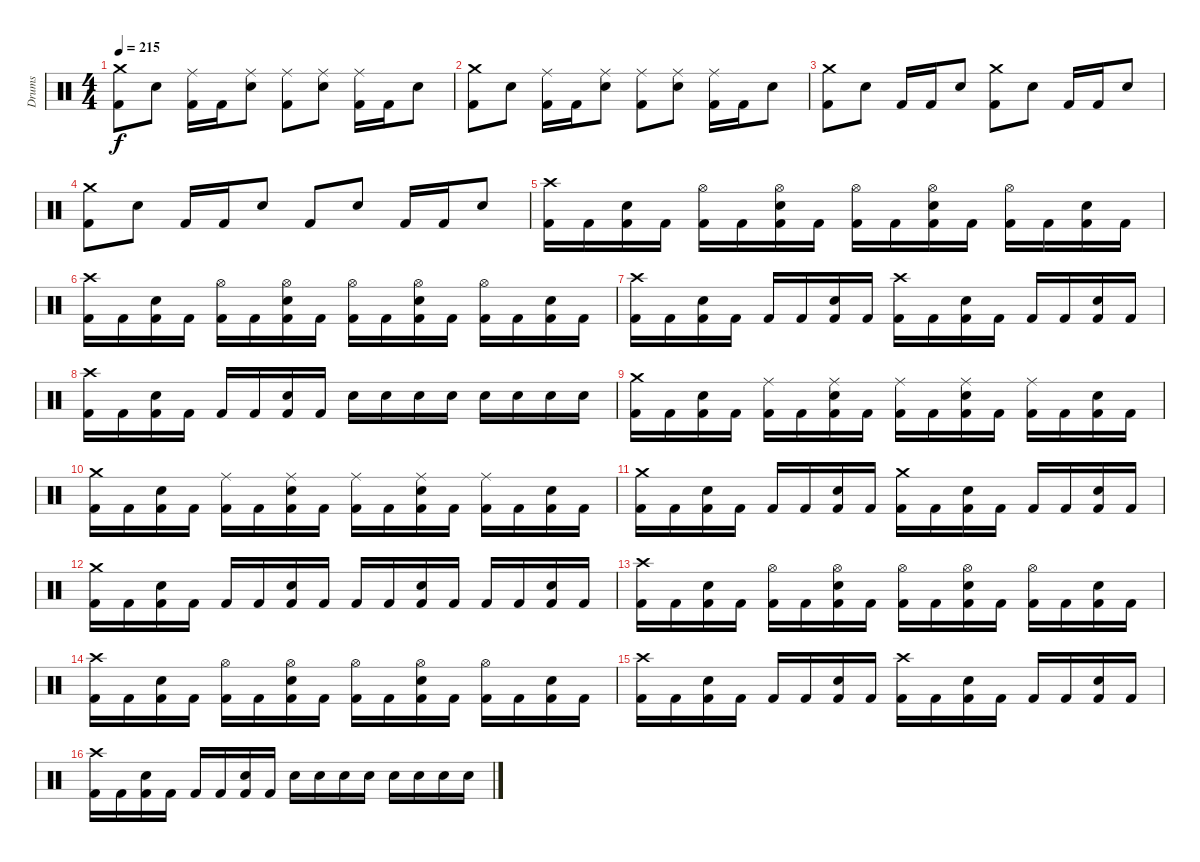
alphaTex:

\track ("Drums" "Drums") {instrument percussion}
\staff {score}
\articulation defaults
\ts (4 4)
\tempo 215
\clef neutral
\ks c
("Crash medium (hit)" "Kick (hit) 2").8{dy f} "Snare (hit) 2".8 ("Ride (middle)" "Kick (hit) 2").16 "Kick (hit) 2".16 ("Ride (middle)" "Snare (hit) 2").8 ("Ride (middle)" "Kick (hit) 2").8 ("Ride (middle)" "Snare (hit) 2").8 ("Ride (middle)" "Kick (hit) 2").16 "Kick (hit) 2".16 "Snare (hit) 2".8 |
("Crash medium (hit)" "Kick (hit) 2").8 "Snare (hit) 2".8 ("Ride (middle)" "Kick (hit) 2").16 "Kick (hit) 2".16 ("Ride (middle)" "Snare (hit) 2").8 ("Ride (middle)" "Kick (hit) 2").8 ("Ride (middle)" "Snare (hit) 2").8 ("Ride (middle)" "Kick (hit) 2").16 "Kick (hit) 2".16 "Snare (hit) 2".8 |
("Crash medium (hit)" "Kick (hit) 2").8 "Snare (hit) 2".8 "Kick (hit) 2".16 "Kick (hit) 2".16 "Snare (hit) 2".8 ("Crash medium (hit)" "Kick (hit) 2").8 "Snare (hit) 2".8 "Kick (hit) 2".16 "Kick (hit) 2".16 "Snare (hit) 2".8 |
("Crash medium (hit)" "Kick (hit) 2").8 "Snare (hit) 2".8 "Kick (hit) 2".16 "Kick (hit) 2".16 "Snare (hit) 2".8 "Kick (hit) 2".8 "Snare (hit) 2".8 "Kick (hit) 2".16 "Kick (hit) 2".16 "Snare (hit) 2".8 |
("Crash high (hit)" "Kick (hit) 2").16 "Kick (hit) 2".16 ("Snare (hit) 2" "Kick (hit) 2").16 "Kick (hit) 2".16 ("Hi-Hat (open)" "Kick (hit) 2").16 "Kick (hit) 2".16 ("Hi-Hat (open)" "Snare (hit) 2" "Kick (hit) 2").16 "Kick (hit) 2".16 ("Hi-Hat (open)" "Kick (hit) 2").16 "Kick (hit) 2".16 ("Hi-Hat (open)" "Snare (hit) 2" "Kick (hit) 2").16 "Kick (hit) 2".16 ("Hi-Hat (open)" "Kick (hit) 2").16 "Kick (hit) 2".16 ("Snare (hit) 2" "Kick (hit) 2").16 "Kick (hit) 2".16 |
("Crash high (hit)" "Kick (hit) 2").16 "Kick (hit) 2".16 ("Snare (hit) 2" "Kick (hit) 2").16 "Kick (hit) 2".16 ("Hi-Hat (open)" "Kick (hit) 2").16 "Kick (hit) 2".16 ("Hi-Hat (open)" "Snare (hit) 2" "Kick (hit) 2").16 "Kick (hit) 2".16 ("Hi-Hat (open)" "Kick (hit) 2").16 "Kick (hit) 2".16 ("Hi-Hat (open)" "Snare (hit) 2" "Kick (hit) 2").16 "Kick (hit) 2".16 ("Hi-Hat (open)" "Kick (hit) 2").16 "Kick (hit) 2".16 ("Snare (hit) 2" "Kick (hit) 2").16 "Kick (hit) 2".16 |
("Crash high (hit)" "Kick (hit) 2").16 "Kick (hit) 2".16 ("Snare (hit) 2" "Kick (hit) 2").16 "Kick (hit) 2".16 "Kick (hit) 2".16 "Kick (hit) 2".16 ("Snare (hit) 2" "Kick (hit) 2").16 "Kick (hit) 2".16 ("Crash high (hit)" "Kick (hit) 2").16 "Kick (hit) 2".16 ("Snare (hit) 2" "Kick (hit) 2").16 "Kick (hit) 2".16 "Kick (hit) 2".16 "Kick (hit) 2".16 ("Snare (hit) 2" "Kick (hit) 2").16 "Kick (hit) 2".16 |
("Crash high (hit)" "Kick (hit) 2").16 "Kick (hit) 2".16 ("Snare (hit) 2" "Kick (hit) 2").16 "Kick (hit) 2".16 "Kick (hit) 2".16 "Kick (hit) 2".16 ("Snare (hit) 2" "Kick (hit) 2").16 "Kick (hit) 2".16 "Snare (hit) 2".16 "Snare (hit) 2".16 "Snare (hit) 2".16 "Snare (hit) 2".16 "Snare (hit) 2".16 "Snare (hit) 2".16 "Snare (hit) 2".16 "Snare (hit) 2".16 |
("Crash medium (hit)" "Kick (hit) 2").16 "Kick (hit) 2".16 ("Snare (hit) 2" "Kick (hit) 2").16 "Kick (hit) 2".16 ("Ride (middle)" "Kick (hit) 2").16 "Kick (hit) 2".16 ("Ride (middle)" "Snare (hit) 2" "Kick (hit) 2").16 "Kick (hit) 2".16 ("Ride (middle)" "Kick (hit) 2").16 "Kick (hit) 2".16 ("Ride (middle)" "Snare (hit) 2" "Kick (hit) 2").16 "Kick (hit) 2".16 ("Ride (middle)" "Kick (hit) 2").16 "Kick (hit) 2".16 ("Snare (hit) 2" "Kick (hit) 2").16 "Kick (hit) 2".16 |
("Crash medium (hit)" "Kick (hit) 2").16 "Kick (hit) 2".16 ("Snare (hit) 2" "Kick (hit) 2").16 "Kick (hit) 2".16 ("Ride (middle)" "Kick (hit) 2").16 "Kick (hit) 2".16 ("Ride (middle)" "Snare (hit) 2" "Kick (hit) 2").16 "Kick (hit) 2".16 ("Ride (middle)" "Kick (hit) 2").16 "Kick (hit) 2".16 ("Ride (middle)" "Snare (hit) 2" "Kick (hit) 2").16 "Kick (hit) 2".16 ("Ride (middle)" "Kick (hit) 2").16 "Kick (hit) 2".16 ("Snare (hit) 2" "Kick (hit) 2").16 "Kick (hit) 2".16 |
("Crash medium (hit)" "Kick (hit) 2").16 "Kick (hit) 2".16 ("Snare (hit) 2" "Kick (hit) 2").16 "Kick (hit) 2".16 "Kick (hit) 2".16 "Kick (hit) 2".16 ("Snare (hit) 2" "Kick (hit) 2").16 "Kick (hit) 2".16 ("Crash medium (hit)" "Kick (hit) 2").16 "Kick (hit) 2".16 ("Snare (hit) 2" "Kick (hit) 2").16 "Kick (hit) 2".16 "Kick (hit) 2".16 "Kick (hit) 2".16 ("Snare (hit) 2" "Kick (hit) 2").16 "Kick (hit) 2".16 |
("Crash medium (hit)" "Kick (hit) 2").16 "Kick (hit) 2".16 ("Snare (hit) 2" "Kick (hit) 2").16 "Kick (hit) 2".16 "Kick (hit) 2".16 "Kick (hit) 2".16 ("Snare (hit) 2" "Kick (hit) 2").16 "Kick (hit) 2".16 "Kick (hit) 2".16 "Kick (hit) 2".16 ("Snare (hit) 2" "Kick (hit) 2").16 "Kick (hit) 2".16 "Kick (hit) 2".16 "Kick (hit) 2".16 ("Snare (hit) 2" "Kick (hit) 2").16 "Kick (hit) 2".16 |
("Crash high (hit)" "Kick (hit) 2").16 "Kick (hit) 2".16 ("Snare (hit) 2" "Kick (hit) 2").16 "Kick (hit) 2".16 ("Hi-Hat (open)" "Kick (hit) 2").16 "Kick (hit) 2".16 ("Hi-Hat (open)" "Snare (hit) 2" "Kick (hit) 2").16 "Kick (hit) 2".16 ("Hi-Hat (open)" "Kick (hit) 2").16 "Kick (hit) 2".16 ("Hi-Hat (open)" "Snare (hit) 2" "Kick (hit) 2").16 "Kick (hit) 2".16 ("Hi-Hat (open)" "Kick (hit) 2").16 "Kick (hit) 2".16 ("Snare (hit) 2" "Kick (hit) 2").16 "Kick (hit) 2".16 |
("Crash high (hit)" "Kick (hit) 2").16 "Kick (hit) 2".16 ("Snare (hit) 2" "Kick (hit) 2").16 "Kick (hit) 2".16 ("Hi-Hat (open)" "Kick (hit) 2").16 "Kick (hit) 2".16 ("Hi-Hat (open)" "Snare (hit) 2" "Kick (hit) 2").16 "Kick (hit) 2".16 ("Hi-Hat (open)" "Kick (hit) 2").16 "Kick (hit) 2".16 ("Hi-Hat (open)" "Snare (hit) 2" "Kick (hit) 2").16 "Kick (hit) 2".16 ("Hi-Hat (open)" "Kick (hit) 2").16 "Kick (hit) 2".16 ("Snare (hit) 2" "Kick (hit) 2").16 "Kick (hit) 2".16 |
("Crash high (hit)" "Kick (hit) 2").16 "Kick (hit) 2".16 ("Snare (hit) 2" "Kick (hit) 2").16 "Kick (hit) 2".16 "Kick (hit) 2".16 "Kick (hit) 2".16 ("Snare (hit) 2" "Kick (hit) 2").16 "Kick (hit) 2".16 ("Crash high (hit)" "Kick (hit) 2").16 "Kick (hit) 2".16 ("Snare (hit) 2" "Kick (hit) 2").16 "Kick (hit) 2".16 "Kick (hit) 2".16 "Kick (hit) 2".16 ("Snare (hit) 2" "Kick (hit) 2").16 "Kick (hit) 2".16 |
("Crash high (hit)" "Kick (hit) 2").16 "Kick (hit) 2".16 ("Snare (hit) 2" "Kick (hit) 2").16 "Kick (hit) 2".16 "Kick (hit) 2".16 "Kick (hit) 2".16 ("Snare (hit) 2" "Kick (hit) 2").16 "Kick (hit) 2".16 "Snare (hit) 2".16 "Snare (hit) 2".16 "Snare (hit) 2".16 "Snare (hit) 2".16 "Snare (hit) 2".16 "Snare (hit) 2".16 "Snare (hit) 2".16 "Snare (hit) 2".16
